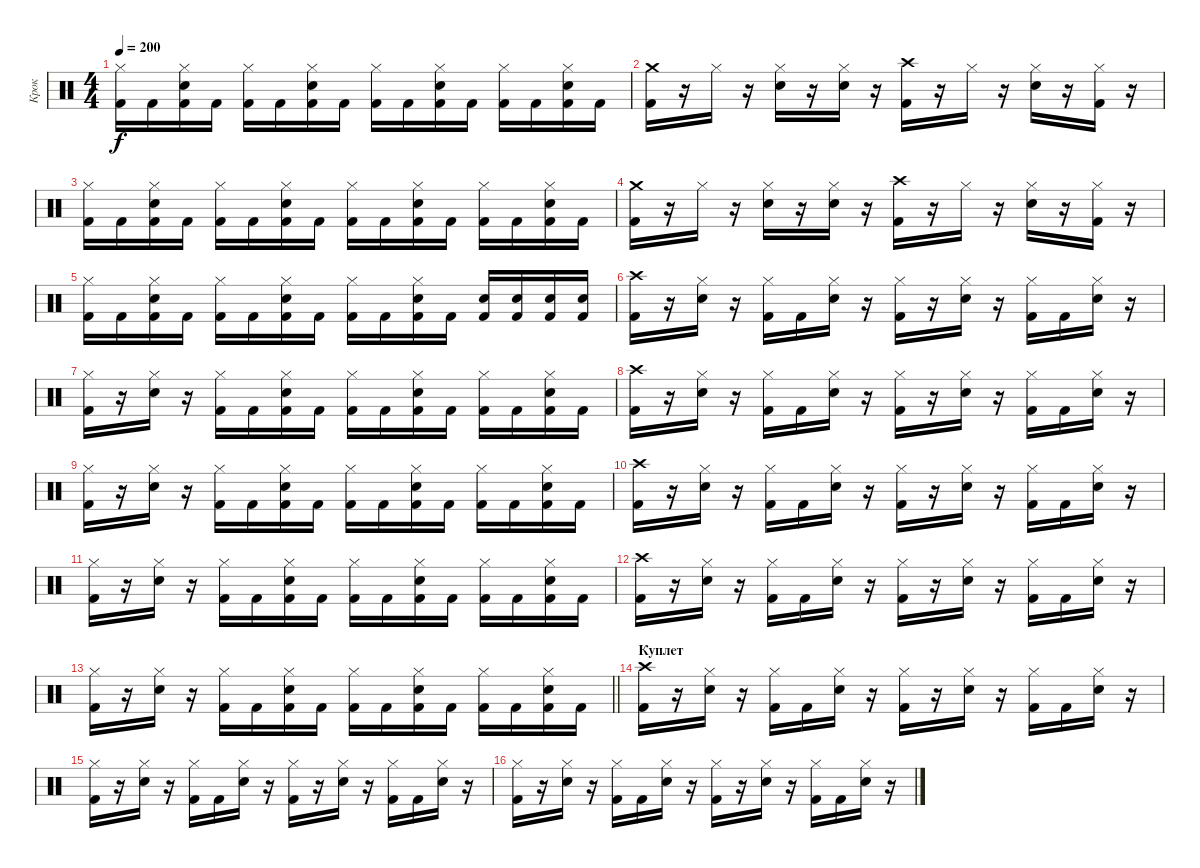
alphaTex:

\track ("Крок" "Крок") {instrument percussion}
\staff {score}
\articulation defaults
\ts (4 4)
\tempo 200
\clef neutral
\ks c
("Kick (hit) 2" "Hi-Hat (closed)").16{dy f} "Kick (hit) 2".16 ("Kick (hit) 2" "Electric Snare (hit)" "Hi-Hat (closed)").16 "Kick (hit) 2".16 ("Kick (hit) 2" "Hi-Hat (closed)").16 "Kick (hit) 2".16 ("Kick (hit) 2" "Electric Snare (hit)" "Hi-Hat (closed)").16 "Kick (hit) 2".16 ("Kick (hit) 2" "Hi-Hat (closed)").16 "Kick (hit) 2".16 ("Kick (hit) 2" "Electric Snare (hit)" "Hi-Hat (closed)").16 "Kick (hit) 2".16 ("Kick (hit) 2" "Hi-Hat (closed)").16 "Kick (hit) 2".16 ("Kick (hit) 2" "Electric Snare (hit)" "Hi-Hat (closed)").16 "Kick (hit) 2".16 |
("Kick (hit) 2" "Crash medium (hit)").16 r.16 "Hi-Hat (closed)".16 r.16 ("Electric Snare (hit)" "Hi-Hat (closed)").16 r.16 ("Electric Snare (hit)" "Hi-Hat (closed)").16 r.16 ("Kick (hit) 2" "Crash high (hit)").16 r.16 "Hi-Hat (closed)".16 r.16 ("Electric Snare (hit)" "Hi-Hat (closed)").16 r.16 ("Kick (hit) 2" "Hi-Hat (closed)").16 r.16 |
("Kick (hit) 2" "Hi-Hat (closed)").16 "Kick (hit) 2".16 ("Kick (hit) 2" "Electric Snare (hit)" "Hi-Hat (closed)").16 "Kick (hit) 2".16 ("Kick (hit) 2" "Hi-Hat (closed)").16 "Kick (hit) 2".16 ("Kick (hit) 2" "Electric Snare (hit)" "Hi-Hat (closed)").16 "Kick (hit) 2".16 ("Kick (hit) 2" "Hi-Hat (closed)").16 "Kick (hit) 2".16 ("Kick (hit) 2" "Electric Snare (hit)" "Hi-Hat (closed)").16 "Kick (hit) 2".16 ("Kick (hit) 2" "Hi-Hat (closed)").16 "Kick (hit) 2".16 ("Kick (hit) 2" "Electric Snare (hit)" "Hi-Hat (closed)").16 "Kick (hit) 2".16 |
("Kick (hit) 2" "Crash medium (hit)").16 r.16 "Hi-Hat (closed)".16 r.16 ("Electric Snare (hit)" "Hi-Hat (closed)").16 r.16 ("Electric Snare (hit)" "Hi-Hat (closed)").16 r.16 ("Kick (hit) 2" "Crash high (hit)").16 r.16 "Hi-Hat (closed)".16 r.16 ("Electric Snare (hit)" "Hi-Hat (closed)").16 r.16 ("Kick (hit) 2" "Hi-Hat (closed)").16 r.16 |
("Kick (hit) 2" "Hi-Hat (closed)").16 "Kick (hit) 2".16 ("Kick (hit) 2" "Electric Snare (hit)" "Hi-Hat (closed)").16 "Kick (hit) 2".16 ("Kick (hit) 2" "Hi-Hat (closed)").16 "Kick (hit) 2".16 ("Kick (hit) 2" "Electric Snare (hit)" "Hi-Hat (closed)").16 "Kick (hit) 2".16 ("Kick (hit) 2" "Hi-Hat (closed)").16 "Kick (hit) 2".16 ("Kick (hit) 2" "Electric Snare (hit)" "Hi-Hat (closed)").16 "Kick (hit) 2".16 ("Kick (hit) 2" "Electric Snare (hit)").16 ("Kick (hit) 2" "Electric Snare (hit)").16 ("Kick (hit) 2" "Electric Snare (hit)").16 ("Kick (hit) 2" "Electric Snare (hit)").16 |
("Crash high (hit)" "Kick (hit) 2").16 r.16 ("Hi-Hat (closed)" "Electric Snare (hit)").16 r.16 ("Hi-Hat (closed)" "Kick (hit) 2").16 "Kick (hit) 2".16 ("Hi-Hat (closed)" "Electric Snare (hit)").16 r.16 ("Hi-Hat (closed)" "Kick (hit) 2").16 r.16 ("Hi-Hat (closed)" "Electric Snare (hit)").16 r.16 ("Hi-Hat (closed)" "Kick (hit) 2").16 "Kick (hit) 2".16 ("Hi-Hat (closed)" "Electric Snare (hit)").16 r.16 |
("Hi-Hat (closed)" "Kick (hit) 2").16 r.16 ("Hi-Hat (closed)" "Electric Snare (hit)").16 r.16 ("Hi-Hat (closed)" "Kick (hit) 2").16 "Kick (hit) 2".16 ("Hi-Hat (closed)" "Electric Snare (hit)" "Kick (hit) 2").16 "Kick (hit) 2".16 ("Hi-Hat (closed)" "Kick (hit) 2").16 "Kick (hit) 2".16 ("Hi-Hat (closed)" "Kick (hit) 2" "Electric Snare (hit)").16 "Kick (hit) 2".16 ("Hi-Hat (closed)" "Kick (hit) 2").16 "Kick (hit) 2".16 ("Hi-Hat (closed)" "Kick (hit) 2" "Electric Snare (hit)").16 "Kick (hit) 2".16 |
("Crash high (hit)" "Kick (hit) 2").16 r.16 ("Hi-Hat (closed)" "Electric Snare (hit)").16 r.16 ("Hi-Hat (closed)" "Kick (hit) 2").16 "Kick (hit) 2".16 ("Hi-Hat (closed)" "Electric Snare (hit)").16 r.16 ("Hi-Hat (closed)" "Kick (hit) 2").16 r.16 ("Hi-Hat (closed)" "Electric Snare (hit)").16 r.16 ("Hi-Hat (closed)" "Kick (hit) 2").16 "Kick (hit) 2".16 ("Hi-Hat (closed)" "Electric Snare (hit)").16 r.16 |
("Hi-Hat (closed)" "Kick (hit) 2").16 r.16 ("Hi-Hat (closed)" "Electric Snare (hit)").16 r.16 ("Hi-Hat (closed)" "Kick (hit) 2").16 "Kick (hit) 2".16 ("Hi-Hat (closed)" "Electric Snare (hit)" "Kick (hit) 2").16 "Kick (hit) 2".16 ("Hi-Hat (closed)" "Kick (hit) 2").16 "Kick (hit) 2".16 ("Hi-Hat (closed)" "Kick (hit) 2" "Electric Snare (hit)").16 "Kick (hit) 2".16 ("Hi-Hat (closed)" "Kick (hit) 2").16 "Kick (hit) 2".16 ("Hi-Hat (closed)" "Kick (hit) 2" "Electric Snare (hit)").16 "Kick (hit) 2".16 |
("Crash high (hit)" "Kick (hit) 2").16 r.16 ("Hi-Hat (closed)" "Electric Snare (hit)").16 r.16 ("Hi-Hat (closed)" "Kick (hit) 2").16 "Kick (hit) 2".16 ("Hi-Hat (closed)" "Electric Snare (hit)").16 r.16 ("Hi-Hat (closed)" "Kick (hit) 2").16 r.16 ("Hi-Hat (closed)" "Electric Snare (hit)").16 r.16 ("Hi-Hat (closed)" "Kick (hit) 2").16 "Kick (hit) 2".16 ("Hi-Hat (closed)" "Electric Snare (hit)").16 r.16 |
("Hi-Hat (closed)" "Kick (hit) 2").16 r.16 ("Hi-Hat (closed)" "Electric Snare (hit)").16 r.16 ("Hi-Hat (closed)" "Kick (hit) 2").16 "Kick (hit) 2".16 ("Hi-Hat (closed)" "Electric Snare (hit)" "Kick (hit) 2").16 "Kick (hit) 2".16 ("Hi-Hat (closed)" "Kick (hit) 2").16 "Kick (hit) 2".16 ("Hi-Hat (closed)" "Kick (hit) 2" "Electric Snare (hit)").16 "Kick (hit) 2".16 ("Hi-Hat (closed)" "Kick (hit) 2").16 "Kick (hit) 2".16 ("Hi-Hat (closed)" "Kick (hit) 2" "Electric Snare (hit)").16 "Kick (hit) 2".16 |
("Crash high (hit)" "Kick (hit) 2").16 r.16 ("Hi-Hat (closed)" "Electric Snare (hit)").16 r.16 ("Hi-Hat (closed)" "Kick (hit) 2").16 "Kick (hit) 2".16 ("Hi-Hat (closed)" "Electric Snare (hit)").16 r.16 ("Hi-Hat (closed)" "Kick (hit) 2").16 r.16 ("Hi-Hat (closed)" "Electric Snare (hit)").16 r.16 ("Hi-Hat (closed)" "Kick (hit) 2").16 "Kick (hit) 2".16 ("Hi-Hat (closed)" "Electric Snare (hit)").16 r.16 |
\barLineRight lightlight
("Hi-Hat (closed)" "Kick (hit) 2").16 r.16 ("Hi-Hat (closed)" "Electric Snare (hit)").16 r.16 ("Hi-Hat (closed)" "Kick (hit) 2").16 "Kick (hit) 2".16 ("Hi-Hat (closed)" "Electric Snare (hit)" "Kick (hit) 2").16 "Kick (hit) 2".16 ("Hi-Hat (closed)" "Kick (hit) 2").16 "Kick (hit) 2".16 ("Hi-Hat (closed)" "Kick (hit) 2" "Electric Snare (hit)").16 "Kick (hit) 2".16 ("Hi-Hat (closed)" "Kick (hit) 2").16 "Kick (hit) 2".16 ("Hi-Hat (closed)" "Kick (hit) 2" "Electric Snare (hit)").16 "Kick (hit) 2".16 |
\section ("" "Куплет")
("Crash high (hit)" "Kick (hit) 2").16 r.16 ("Hi-Hat (closed)" "Electric Snare (hit)").16 r.16 ("Hi-Hat (closed)" "Kick (hit) 2").16 "Kick (hit) 2".16 ("Hi-Hat (closed)" "Electric Snare (hit)").16 r.16 ("Hi-Hat (closed)" "Kick (hit) 2").16 r.16 ("Hi-Hat (closed)" "Electric Snare (hit)").16 r.16 ("Hi-Hat (closed)" "Kick (hit) 2").16 "Kick (hit) 2".16 ("Hi-Hat (closed)" "Electric Snare (hit)").16 r.16 |
("Hi-Hat (closed)" "Kick (hit) 2").16 r.16 ("Hi-Hat (closed)" "Electric Snare (hit)").16 r.16 ("Hi-Hat (closed)" "Kick (hit) 2").16 "Kick (hit) 2".16 ("Hi-Hat (closed)" "Electric Snare (hit)").16 r.16 ("Hi-Hat (closed)" "Kick (hit) 2").16 r.16 ("Hi-Hat (closed)" "Electric Snare (hit)").16 r.16 ("Hi-Hat (closed)" "Kick (hit) 2").16 "Kick (hit) 2".16 ("Hi-Hat (closed)" "Electric Snare (hit)").16 r.16 |
("Hi-Hat (closed)" "Kick (hit) 2").16 r.16 ("Hi-Hat (closed)" "Electric Snare (hit)").16 r.16 ("Hi-Hat (closed)" "Kick (hit) 2").16 "Kick (hit) 2".16 ("Hi-Hat (closed)" "Electric Snare (hit)").16 r.16 ("Hi-Hat (closed)" "Kick (hit) 2").16 r.16 ("Hi-Hat (closed)" "Electric Snare (hit)").16 r.16 ("Hi-Hat (closed)" "Kick (hit) 2").16 "Kick (hit) 2".16 ("Hi-Hat (closed)" "Electric Snare (hit)").16 r.16
